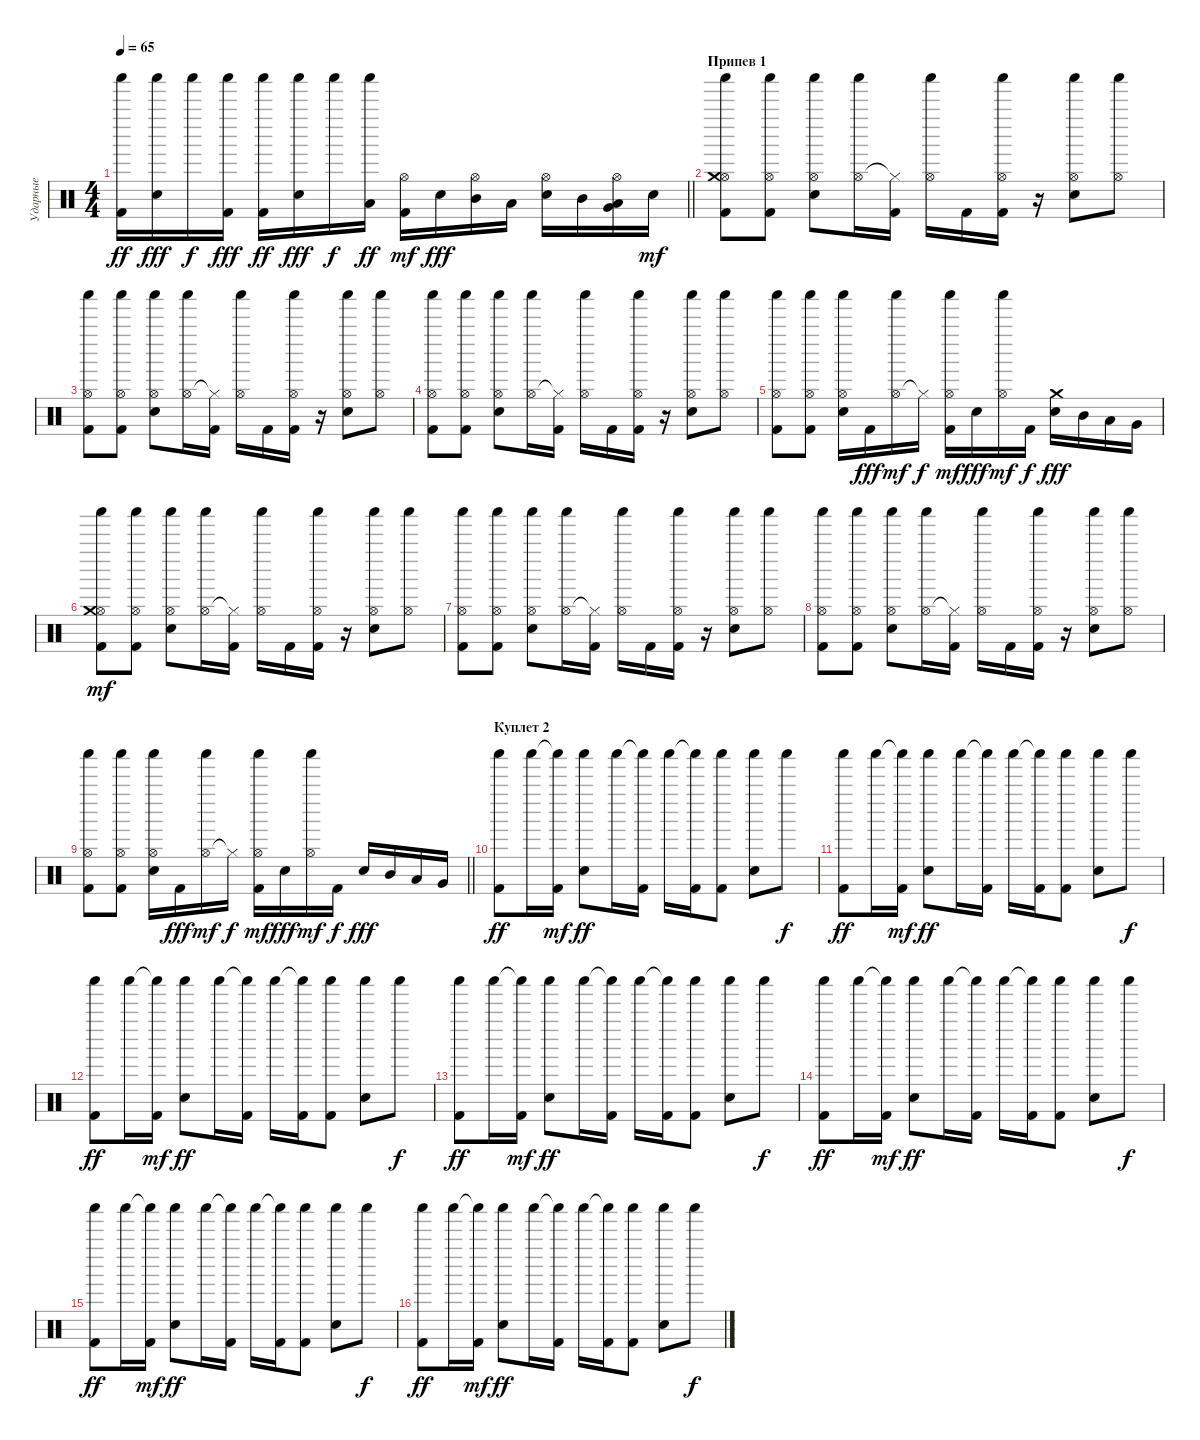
\track ("Ударные" "Ударные") {instrument percussion}
\staff {score}
\articulation defaults
\ts (4 4)
\tempo 65
\clef neutral
\barLineRight lightlight
\ks c
("Shaker (hit)" "Kick (hit) 2").16{dy ff} ("Shaker (hit)" "Snare (hit) 2").16{dy fff} "Shaker (hit)".16{dy f} ("Shaker (hit)" "Kick (hit) 2").16{dy fff} ("Shaker (hit)" "Kick (hit) 2").16{dy ff} ("Shaker (hit)" "Snare (hit) 2").16{dy fff} "Shaker (hit)".16{dy f} ("Shaker (hit)" "Low Tom (hit)").16{dy ff} ("Hi-Hat (open)" "Kick (hit) 2").16{dy mf} "Snare (hit) 2".16{dy fff} ("Hi-Hat (open)" "Mid Tom (hit)").16 "Low Tom (hit)".16 ("Hi-Hat (open)" "Snare (hit) 2").16 "Mid Tom (hit)".16 ("Hi-Hat (open)" "Low Tom (hit)" "Very Low Tom (hit)").16 "Snare (hit) 2".16{dy mf} |
\section ("" "Припев 1")
("Hi-Hat (open)" "Kick (hit) 2" "Crash medium (hit)" "Shaker (hit)").8 ("Hi-Hat (open)" "Kick (hit) 2" "Shaker (hit)").8 ("Hi-Hat (open)" "Snare (hit) 2" "Shaker (hit)").8 ("Hi-Hat (open)" "Shaker (hit)").16 ("Hi-Hat (closed)"{t} "Kick (hit) 2").16 ("Hi-Hat (open)" "Shaker (hit)").16 "Kick (hit) 2".16 ("Hi-Hat (open)" "Kick (hit) 2" "Shaker (hit)").16 r.16 ("Hi-Hat (open)" "Snare (hit) 2" "Shaker (hit)").8 ("Hi-Hat (open)" "Shaker (hit)").8 |
("Hi-Hat (open)" "Kick (hit) 2" "Shaker (hit)").8 ("Hi-Hat (open)" "Kick (hit) 2" "Shaker (hit)").8 ("Hi-Hat (open)" "Snare (hit) 2" "Shaker (hit)").8 ("Hi-Hat (open)" "Shaker (hit)").16 ("Hi-Hat (closed)"{t} "Kick (hit) 2").16 ("Hi-Hat (open)" "Shaker (hit)").16 "Kick (hit) 2".16 ("Hi-Hat (open)" "Kick (hit) 2" "Shaker (hit)").16 r.16 ("Hi-Hat (open)" "Snare (hit) 2" "Shaker (hit)").8 ("Hi-Hat (open)" "Shaker (hit)").8 |
("Hi-Hat (open)" "Kick (hit) 2" "Shaker (hit)").8 ("Hi-Hat (open)" "Kick (hit) 2" "Shaker (hit)").8 ("Hi-Hat (open)" "Snare (hit) 2" "Shaker (hit)").8 ("Hi-Hat (open)" "Shaker (hit)").16 ("Hi-Hat (closed)"{t} "Kick (hit) 2").16 ("Hi-Hat (open)" "Shaker (hit)").16 "Kick (hit) 2".16 ("Hi-Hat (open)" "Kick (hit) 2" "Shaker (hit)").16 r.16 ("Hi-Hat (open)" "Snare (hit) 2" "Shaker (hit)").8 ("Hi-Hat (open)" "Shaker (hit)").8 |
("Hi-Hat (open)" "Kick (hit) 2" "Shaker (hit)").8 ("Hi-Hat (open)" "Kick (hit) 2" "Shaker (hit)").8 ("Hi-Hat (open)" "Snare (hit) 2" "Shaker (hit)").16 "Kick (hit) 2".16{dy fff} ("Hi-Hat (open)" "Shaker (hit)").16{dy mf} "Hi-Hat (closed)"{t}.16{dy f} ("Hi-Hat (open)" "Kick (hit) 2" "Shaker (hit)").16{dy mf} "Snare (hit) 2".16{dy fff} ("Hi-Hat (open)" "Shaker (hit)").16{dy mf} "Kick (hit) 2".16{dy f} ("Crash medium (hit)" "Snare (hit) 2").16{dy fff} "Mid Tom (hit)".16 "Low Tom (hit)".16 "Very Low Tom (hit)".16 |
("Hi-Hat (open)" "Kick (hit) 2" "Crash medium (hit)" "Shaker (hit)").8{dy mf} ("Hi-Hat (open)" "Kick (hit) 2" "Shaker (hit)").8 ("Hi-Hat (open)" "Snare (hit) 2" "Shaker (hit)").8 ("Hi-Hat (open)" "Shaker (hit)").16 ("Hi-Hat (closed)"{t} "Kick (hit) 2").16 ("Hi-Hat (open)" "Shaker (hit)").16 "Kick (hit) 2".16 ("Hi-Hat (open)" "Kick (hit) 2" "Shaker (hit)").16 r.16 ("Hi-Hat (open)" "Snare (hit) 2" "Shaker (hit)").8 ("Hi-Hat (open)" "Shaker (hit)").8 |
("Hi-Hat (open)" "Kick (hit) 2" "Shaker (hit)").8 ("Hi-Hat (open)" "Kick (hit) 2" "Shaker (hit)").8 ("Hi-Hat (open)" "Snare (hit) 2" "Shaker (hit)").8 ("Hi-Hat (open)" "Shaker (hit)").16 ("Hi-Hat (closed)"{t} "Kick (hit) 2").16 ("Hi-Hat (open)" "Shaker (hit)").16 "Kick (hit) 2".16 ("Hi-Hat (open)" "Kick (hit) 2" "Shaker (hit)").16 r.16 ("Hi-Hat (open)" "Snare (hit) 2" "Shaker (hit)").8 ("Hi-Hat (open)" "Shaker (hit)").8 |
("Hi-Hat (open)" "Kick (hit) 2" "Shaker (hit)").8 ("Hi-Hat (open)" "Kick (hit) 2" "Shaker (hit)").8 ("Hi-Hat (open)" "Snare (hit) 2" "Shaker (hit)").8 ("Hi-Hat (open)" "Shaker (hit)").16 ("Hi-Hat (closed)"{t} "Kick (hit) 2").16 ("Hi-Hat (open)" "Shaker (hit)").16 "Kick (hit) 2".16 ("Hi-Hat (open)" "Kick (hit) 2" "Shaker (hit)").16 r.16 ("Hi-Hat (open)" "Snare (hit) 2" "Shaker (hit)").8 ("Hi-Hat (open)" "Shaker (hit)").8 |
\barLineRight lightlight
("Hi-Hat (open)" "Kick (hit) 2" "Shaker (hit)").8 ("Hi-Hat (open)" "Kick (hit) 2" "Shaker (hit)").8 ("Hi-Hat (open)" "Snare (hit) 2" "Shaker (hit)").16 "Kick (hit) 2".16{dy fff} ("Hi-Hat (open)" "Shaker (hit)").16{dy mf} "Hi-Hat (closed)"{t}.16{dy f} ("Hi-Hat (open)" "Kick (hit) 2" "Shaker (hit)").16{dy mf} "Snare (hit) 2".16{dy fff} ("Hi-Hat (open)" "Shaker (hit)").16{dy mf} "Kick (hit) 2".16{dy f} "Snare (hit) 2".16{dy fff} "Mid Tom (hit)".16 "Low Tom (hit)".16 "Very Low Tom (hit)".16 |
\section ("" "Куплет 2")
("Shaker (hit)" "Kick (hit) 2").8{dy ff} "Shaker (hit)".16 ("Shaker (hit)"{t} "Kick (hit) 2").16{dy mf} ("Shaker (hit)" "Snare (hit) 2").8{dy ff} "Shaker (hit)".16 ("Shaker (hit)"{t} "Kick (hit) 2").16 "Shaker (hit)".16 ("Shaker (hit)"{t} "Kick (hit) 2").16 ("Shaker (hit)" "Kick (hit) 2").8 ("Shaker (hit)" "Snare (hit) 2").8 "Shaker (hit)".8{dy f} |
("Shaker (hit)" "Kick (hit) 2").8{dy ff} "Shaker (hit)".16 ("Shaker (hit)"{t} "Kick (hit) 2").16{dy mf} ("Shaker (hit)" "Snare (hit) 2").8{dy ff} "Shaker (hit)".16 ("Shaker (hit)"{t} "Kick (hit) 2").16 "Shaker (hit)".16 ("Shaker (hit)"{t} "Kick (hit) 2").16 ("Shaker (hit)" "Kick (hit) 2").8 ("Shaker (hit)" "Snare (hit) 2").8 "Shaker (hit)".8{dy f} |
("Shaker (hit)" "Kick (hit) 2").8{dy ff} "Shaker (hit)".16 ("Shaker (hit)"{t} "Kick (hit) 2").16{dy mf} ("Shaker (hit)" "Snare (hit) 2").8{dy ff} "Shaker (hit)".16 ("Shaker (hit)"{t} "Kick (hit) 2").16 "Shaker (hit)".16 ("Shaker (hit)"{t} "Kick (hit) 2").16 ("Shaker (hit)" "Kick (hit) 2").8 ("Shaker (hit)" "Snare (hit) 2").8 "Shaker (hit)".8{dy f} |
("Shaker (hit)" "Kick (hit) 2").8{dy ff} "Shaker (hit)".16 ("Shaker (hit)"{t} "Kick (hit) 2").16{dy mf} ("Shaker (hit)" "Snare (hit) 2").8{dy ff} "Shaker (hit)".16 ("Shaker (hit)"{t} "Kick (hit) 2").16 "Shaker (hit)".16 ("Shaker (hit)"{t} "Kick (hit) 2").16 ("Shaker (hit)" "Kick (hit) 2").8 ("Shaker (hit)" "Snare (hit) 2").8 "Shaker (hit)".8{dy f} |
("Shaker (hit)" "Kick (hit) 2").8{dy ff} "Shaker (hit)".16 ("Shaker (hit)"{t} "Kick (hit) 2").16{dy mf} ("Shaker (hit)" "Snare (hit) 2").8{dy ff} "Shaker (hit)".16 ("Shaker (hit)"{t} "Kick (hit) 2").16 "Shaker (hit)".16 ("Shaker (hit)"{t} "Kick (hit) 2").16 ("Shaker (hit)" "Kick (hit) 2").8 ("Shaker (hit)" "Snare (hit) 2").8 "Shaker (hit)".8{dy f} |
("Shaker (hit)" "Kick (hit) 2").8{dy ff} "Shaker (hit)".16 ("Shaker (hit)"{t} "Kick (hit) 2").16{dy mf} ("Shaker (hit)" "Snare (hit) 2").8{dy ff} "Shaker (hit)".16 ("Shaker (hit)"{t} "Kick (hit) 2").16 "Shaker (hit)".16 ("Shaker (hit)"{t} "Kick (hit) 2").16 ("Shaker (hit)" "Kick (hit) 2").8 ("Shaker (hit)" "Snare (hit) 2").8 "Shaker (hit)".8{dy f} |
("Shaker (hit)" "Kick (hit) 2").8{dy ff} "Shaker (hit)".16 ("Shaker (hit)"{t} "Kick (hit) 2").16{dy mf} ("Shaker (hit)" "Snare (hit) 2").8{dy ff} "Shaker (hit)".16 ("Shaker (hit)"{t} "Kick (hit) 2").16 "Shaker (hit)".16 ("Shaker (hit)"{t} "Kick (hit) 2").16 ("Shaker (hit)" "Kick (hit) 2").8 ("Shaker (hit)" "Snare (hit) 2").8 "Shaker (hit)".8{dy f}
